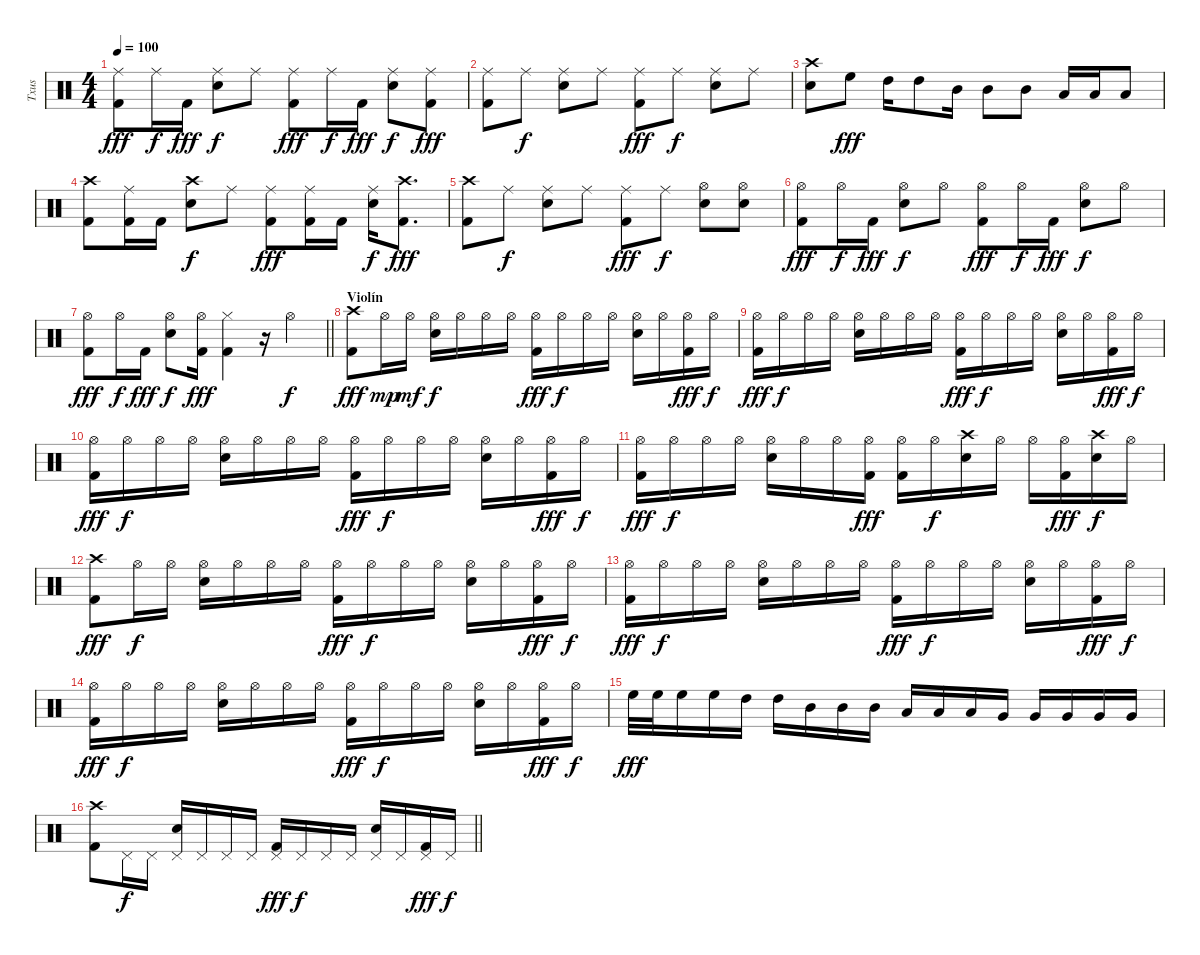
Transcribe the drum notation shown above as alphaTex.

\track ("Txus" "Txus") {instrument percussion}
\staff {score}
\articulation defaults
\ts (4 4)
\tempo 100
\clef neutral
\ks c
("Kick (hit) 2" "Ride (middle)").8{dy fff} "Ride (middle)".16{dy f} "Kick (hit) 2".16{dy fff} ("Electric Snare (hit)" "Ride (middle)").8{dy f} "Ride (middle)".8 ("Kick (hit) 2" "Ride (middle)").8{dy fff} "Ride (middle)".16{dy f} "Kick (hit) 2".16{dy fff} ("Electric Snare (hit)" "Ride (middle)").8{dy f} ("Kick (hit) 2" "Ride (middle)").8{dy fff} |
("Kick (hit) 2" "Ride (middle)").8 "Ride (middle)".8{dy f} ("Electric Snare (hit)" "Ride (middle)").8 "Ride (middle)".8 ("Kick (hit) 2" "Ride (middle)").8{dy fff} "Ride (middle)".8{dy f} ("Electric Snare (hit)" "Ride (middle)").8 "Ride (middle)".8 |
("Electric Snare (hit)" "Crash high (hit)").8 "High Floor Tom (hit)".8{dy fff} "High Tom (hit)".16 "High Tom (hit)".8 "Mid Tom (hit)".16 "Mid Tom (hit)".8 "Mid Tom (hit)".8 "Low Tom (hit)".16 "Low Tom (hit)".16 "Low Tom (hit)".8 |
("Kick (hit) 2" "Crash high (hit)").8 ("Kick (hit) 2" "Ride (middle)").16 "Kick (hit) 2".16 ("Electric Snare (hit)" "Crash high (hit)").8{dy f} "Ride (middle)".8 ("Kick (hit) 2" "Ride (middle)").8{dy fff} ("Kick (hit) 2" "Ride (middle)").16 "Kick (hit) 2".16 ("Electric Snare (hit)" "Ride (middle)").16{dy f} ("Kick (hit) 2" "Crash high (hit)").8{d dy fff} |
("Kick (hit) 2" "Crash high (hit)").8 "Ride (middle)".8{dy f} ("Electric Snare (hit)" "Ride (middle)").8 "Ride (middle)".8 ("Kick (hit) 2" "Ride (middle)").8{dy fff} "Ride (middle)".8{dy f} ("Electric Snare (hit)" "Hi-Hat (open)").8 ("Electric Snare (hit)" "Hi-Hat (open)").8 |
("Kick (hit) 2" "Hi-Hat (open)").8{dy fff} "Hi-Hat (open)".16{dy f} "Kick (hit) 2".16{dy fff} ("Electric Snare (hit)" "Hi-Hat (open)").8{dy f} "Hi-Hat (open)".8 ("Kick (hit) 2" "Hi-Hat (open)").8{dy fff} "Hi-Hat (open)".16{dy f} "Kick (hit) 2".16{dy fff} ("Electric Snare (hit)" "Hi-Hat (open)").8{dy f} "Hi-Hat (open)".8 |
\barLineRight lightlight
("Kick (hit) 2" "Hi-Hat (open)").8{dy fff} "Hi-Hat (open)".16{dy f} "Kick (hit) 2".16{dy fff} ("Electric Snare (hit)" "Hi-Hat (open)").8{dy f} ("Kick (hit) 2" "Hi-Hat (open)").16{dy fff} ("Kick (hit) 2" "Hi-Hat (closed)").4 r.16 "Hi-Hat (open)".4{dy f} |
\section ("" "Violín")
("Kick (hit) 2" "Crash high (hit)").8{dy fff} "Hi-Hat (open)".16{dy mp} "Hi-Hat (open)".16{dy mf} ("Electric Snare (hit)" "Hi-Hat (open)").16{dy f} "Hi-Hat (open)".16 "Hi-Hat (open)".16 "Hi-Hat (open)".16 ("Kick (hit) 2" "Hi-Hat (open)").16{dy fff} "Hi-Hat (open)".16{dy f} "Hi-Hat (open)".16 "Hi-Hat (open)".16 ("Electric Snare (hit)" "Hi-Hat (open)").16 "Hi-Hat (open)".16 ("Kick (hit) 2" "Hi-Hat (open)").16{dy fff} "Hi-Hat (open)".16{dy f} |
("Kick (hit) 2" "Hi-Hat (open)").16{dy fff} "Hi-Hat (open)".16{dy f} "Hi-Hat (open)".16 "Hi-Hat (open)".16 ("Electric Snare (hit)" "Hi-Hat (open)").16 "Hi-Hat (open)".16 "Hi-Hat (open)".16 "Hi-Hat (open)".16 ("Kick (hit) 2" "Hi-Hat (open)").16{dy fff} "Hi-Hat (open)".16{dy f} "Hi-Hat (open)".16 "Hi-Hat (open)".16 ("Electric Snare (hit)" "Hi-Hat (open)").16 "Hi-Hat (open)".16 ("Kick (hit) 2" "Hi-Hat (open)").16{dy fff} "Hi-Hat (open)".16{dy f} |
("Kick (hit) 2" "Hi-Hat (open)").16{dy fff} "Hi-Hat (open)".16{dy f} "Hi-Hat (open)".16 "Hi-Hat (open)".16 ("Electric Snare (hit)" "Hi-Hat (open)").16 "Hi-Hat (open)".16 "Hi-Hat (open)".16 "Hi-Hat (open)".16 ("Kick (hit) 2" "Hi-Hat (open)").16{dy fff} "Hi-Hat (open)".16{dy f} "Hi-Hat (open)".16 "Hi-Hat (open)".16 ("Electric Snare (hit)" "Hi-Hat (open)").16 "Hi-Hat (open)".16 ("Kick (hit) 2" "Hi-Hat (open)").16{dy fff} "Hi-Hat (open)".16{dy f} |
("Kick (hit) 2" "Hi-Hat (open)").16{dy fff} "Hi-Hat (open)".16{dy f} "Hi-Hat (open)".16 "Hi-Hat (open)".16 ("Electric Snare (hit)" "Hi-Hat (open)").16 "Hi-Hat (open)".16 "Hi-Hat (open)".16 ("Kick (hit) 2" "Hi-Hat (open)").16{dy fff} ("Kick (hit) 2" "Hi-Hat (open)").16 "Hi-Hat (open)".16{dy f} ("Electric Snare (hit)" "Crash high (hit)").16 "Hi-Hat (open)".16 "Hi-Hat (open)".16 ("Kick (hit) 2" "Hi-Hat (open)").16{dy fff} ("Electric Snare (hit)" "Crash high (hit)").16{dy f} "Hi-Hat (open)".16 |
("Kick (hit) 2" "Crash high (hit)").8{dy fff} "Hi-Hat (open)".16{dy f} "Hi-Hat (open)".16 ("Electric Snare (hit)" "Hi-Hat (open)").16 "Hi-Hat (open)".16 "Hi-Hat (open)".16 "Hi-Hat (open)".16 ("Kick (hit) 2" "Hi-Hat (open)").16{dy fff} "Hi-Hat (open)".16{dy f} "Hi-Hat (open)".16 "Hi-Hat (open)".16 ("Electric Snare (hit)" "Hi-Hat (open)").16 "Hi-Hat (open)".16 ("Kick (hit) 2" "Hi-Hat (open)").16{dy fff} "Hi-Hat (open)".16{dy f} |
("Kick (hit) 2" "Hi-Hat (open)").16{dy fff} "Hi-Hat (open)".16{dy f} "Hi-Hat (open)".16 "Hi-Hat (open)".16 ("Electric Snare (hit)" "Hi-Hat (open)").16 "Hi-Hat (open)".16 "Hi-Hat (open)".16 "Hi-Hat (open)".16 ("Kick (hit) 2" "Hi-Hat (open)").16{dy fff} "Hi-Hat (open)".16{dy f} "Hi-Hat (open)".16 "Hi-Hat (open)".16 ("Electric Snare (hit)" "Hi-Hat (open)").16 "Hi-Hat (open)".16 ("Kick (hit) 2" "Hi-Hat (open)").16{dy fff} "Hi-Hat (open)".16{dy f} |
("Kick (hit) 2" "Hi-Hat (open)").16{dy fff} "Hi-Hat (open)".16{dy f} "Hi-Hat (open)".16 "Hi-Hat (open)".16 ("Electric Snare (hit)" "Hi-Hat (open)").16 "Hi-Hat (open)".16 "Hi-Hat (open)".16 "Hi-Hat (open)".16 ("Kick (hit) 2" "Hi-Hat (open)").16{dy fff} "Hi-Hat (open)".16{dy f} "Hi-Hat (open)".16 "Hi-Hat (open)".16 ("Electric Snare (hit)" "Hi-Hat (open)").16 "Hi-Hat (open)".16 ("Kick (hit) 2" "Hi-Hat (open)").16{dy fff} "Hi-Hat (open)".16{dy f} |
"High Floor Tom (hit)".32{dy fff} "High Floor Tom (hit)".32 "High Floor Tom (hit)".16 "High Floor Tom (hit)".16 "High Tom (hit)".16 "High Tom (hit)".16 "Mid Tom (hit)".16 "Mid Tom (hit)".16 "Mid Tom (hit)".16 "Low Tom (hit)".16 "Low Tom (hit)".16 "Low Tom (hit)".16 "Very Low Tom (hit)".16 "Very Low Tom (hit)".16 "Very Low Tom (hit)".16 "Very Low Tom (hit)".16 "Very Low Tom (hit)".16 |
\barLineRight lightlight
("Kick (hit) 2" "Crash high (hit)").8 "Pedal Hi-Hat (hit)".16{dy f} "Pedal Hi-Hat (hit)".16 ("Electric Snare (hit)" "Pedal Hi-Hat (hit)").16 "Pedal Hi-Hat (hit)".16 "Pedal Hi-Hat (hit)".16 "Pedal Hi-Hat (hit)".16 ("Kick (hit) 2" "Pedal Hi-Hat (hit)").16{dy fff} "Pedal Hi-Hat (hit)".16{dy f} "Pedal Hi-Hat (hit)".16 "Pedal Hi-Hat (hit)".16 ("Electric Snare (hit)" "Pedal Hi-Hat (hit)").16 "Pedal Hi-Hat (hit)".16 ("Kick (hit) 2" "Pedal Hi-Hat (hit)").16{dy fff} "Pedal Hi-Hat (hit)".16{dy f}
